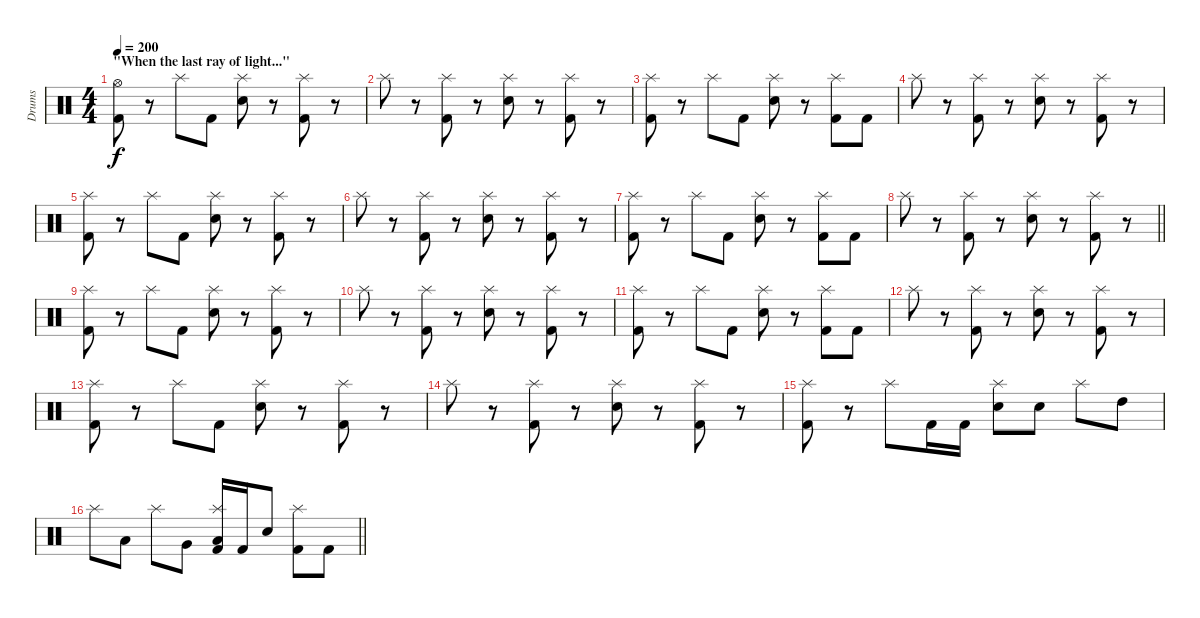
\track ("Drums" "Drums") {instrument percussion}
\staff {score}
\articulation defaults
\ts (4 4)
\section ("" "\"When the last ray of light...\"")
\tempo 200
\clef neutral
\ks c
("Hi-Hat (open)" "Kick (hit) 2").8{dy f} r.8 "Splash (hit)".8 "Kick (hit) 2".8 ("Splash (hit)" "Electric Snare (hit)").8 r.8 ("Splash (hit)" "Kick (hit) 2").8 r.8 |
"Splash (hit)".8 r.8 ("Splash (hit)" "Kick (hit) 2").8 r.8 ("Splash (hit)" "Electric Snare (hit)").8 r.8 ("Splash (hit)" "Kick (hit) 2").8 r.8 |
("Splash (hit)" "Kick (hit) 2").8 r.8 "Splash (hit)".8 "Kick (hit) 2".8 ("Splash (hit)" "Electric Snare (hit)").8 r.8 ("Splash (hit)" "Kick (hit) 2").8 "Kick (hit) 2".8 |
"Splash (hit)".8 r.8 ("Splash (hit)" "Kick (hit) 2").8 r.8 ("Splash (hit)" "Electric Snare (hit)").8 r.8 ("Splash (hit)" "Kick (hit) 2").8 r.8 |
("Splash (hit)" "Kick (hit) 2").8 r.8 "Splash (hit)".8 "Kick (hit) 2".8 ("Splash (hit)" "Electric Snare (hit)").8 r.8 ("Splash (hit)" "Kick (hit) 2").8 r.8 |
"Splash (hit)".8 r.8 ("Splash (hit)" "Kick (hit) 2").8 r.8 ("Splash (hit)" "Electric Snare (hit)").8 r.8 ("Splash (hit)" "Kick (hit) 2").8 r.8 |
("Splash (hit)" "Kick (hit) 2").8 r.8 "Splash (hit)".8 "Kick (hit) 2".8 ("Splash (hit)" "Electric Snare (hit)").8 r.8 ("Splash (hit)" "Kick (hit) 2").8 "Kick (hit) 2".8 |
\barLineRight lightlight "Splash (hit)".8
r.8 ("Splash (hit)" "Kick (hit) 2").8 r.8 ("Splash (hit)" "Electric Snare (hit)").8 r.8 ("Splash (hit)" "Kick (hit) 2").8 r.8 |
("Splash (hit)" "Kick (hit) 2").8 r.8 "Splash (hit)".8 "Kick (hit) 2".8 ("Splash (hit)" "Electric Snare (hit)").8 r.8 ("Splash (hit)" "Kick (hit) 2").8 r.8 |
"Splash (hit)".8 r.8 ("Splash (hit)" "Kick (hit) 2").8 r.8 ("Splash (hit)" "Electric Snare (hit)").8 r.8 ("Splash (hit)" "Kick (hit) 2").8 r.8 |
("Splash (hit)" "Kick (hit) 2").8 r.8 "Splash (hit)".8 "Kick (hit) 2".8 ("Splash (hit)" "Electric Snare (hit)").8 r.8 ("Splash (hit)" "Kick (hit) 2").8 "Kick (hit) 2".8 |
"Splash (hit)".8 r.8 ("Splash (hit)" "Kick (hit) 2").8 r.8 ("Splash (hit)" "Electric Snare (hit)").8 r.8 ("Splash (hit)" "Kick (hit) 2").8 r.8 |
("Splash (hit)" "Kick (hit) 2").8 r.8 "Splash (hit)".8 "Kick (hit) 2".8 ("Splash (hit)" "Electric Snare (hit)").8 r.8 ("Splash (hit)" "Kick (hit) 2").8 r.8 |
"Splash (hit)".8 r.8 ("Splash (hit)" "Kick (hit) 2").8 r.8 ("Splash (hit)" "Electric Snare (hit)").8 r.8 ("Splash (hit)" "Kick (hit) 2").8 r.8 |
("Splash (hit)" "Kick (hit) 2").8 r.8 "Splash (hit)".8 "Kick (hit) 2".16 "Kick (hit) 2".16 ("Splash (hit)" "Electric Snare (hit)").8 "Electric Snare (hit)".8 "Splash (hit)".8 "High Tom (hit)".8 |
\barLineRight lightlight "Splash (hit)".8 "Low Tom (hit)".8 "Splash (hit)".8 "Very Low Tom (hit)".8
("Splash (hit)" "Low Floor Tom (hit)" "Kick (hit) 2").16 "Kick (hit) 2".16 "Electric Snare (hit)".8 ("Splash (hit)" "Kick (hit) 2").8 "Kick (hit) 2".8
